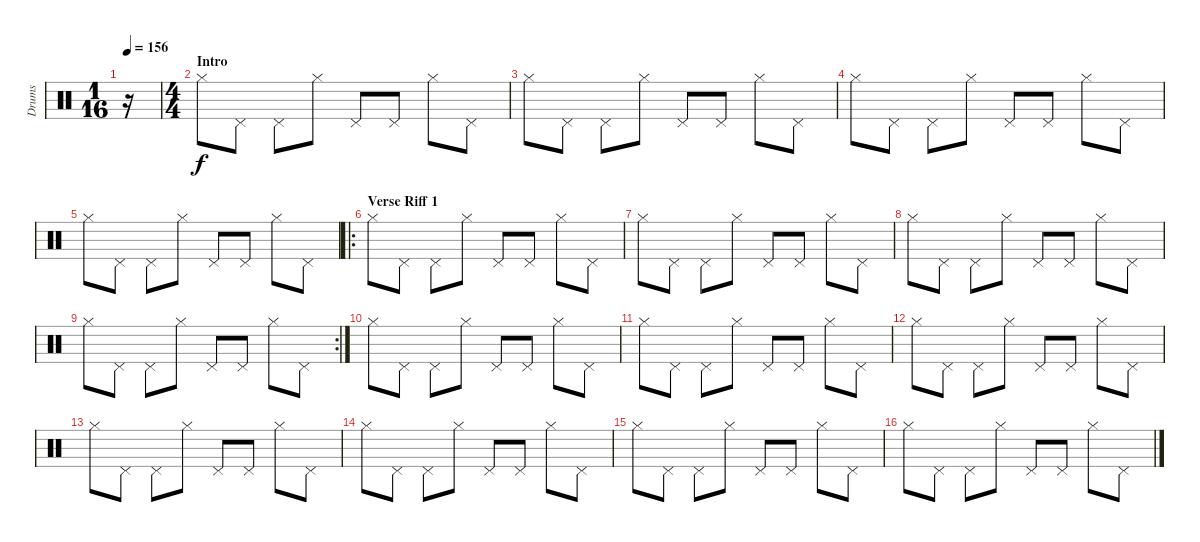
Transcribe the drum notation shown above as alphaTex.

\track ("Drums" "Drums") {instrument percussion}
\staff {score}
\articulation defaults
\ts (1 16)
\tempo 156
\clef neutral
\ks c
r.16{dy f} |
\ts (4 4)
\section ("" "Intro")
"Hi-Hat (closed)".8{volume 11} "Pedal Hi-Hat (hit)".8 "Pedal Hi-Hat (hit)".8 "Hi-Hat (closed)".8 "Pedal Hi-Hat (hit)".8 "Pedal Hi-Hat (hit)".8 "Hi-Hat (closed)".8 "Pedal Hi-Hat (hit)".8 |
"Hi-Hat (closed)".8 "Pedal Hi-Hat (hit)".8 "Pedal Hi-Hat (hit)".8 "Hi-Hat (closed)".8 "Pedal Hi-Hat (hit)".8 "Pedal Hi-Hat (hit)".8 "Hi-Hat (closed)".8 "Pedal Hi-Hat (hit)".8 |
"Hi-Hat (closed)".8 "Pedal Hi-Hat (hit)".8 "Pedal Hi-Hat (hit)".8 "Hi-Hat (closed)".8 "Pedal Hi-Hat (hit)".8 "Pedal Hi-Hat (hit)".8 "Hi-Hat (closed)".8 "Pedal Hi-Hat (hit)".8 |
"Hi-Hat (closed)".8 "Pedal Hi-Hat (hit)".8 "Pedal Hi-Hat (hit)".8 "Hi-Hat (closed)".8 "Pedal Hi-Hat (hit)".8 "Pedal Hi-Hat (hit)".8 "Hi-Hat (closed)".8 "Pedal Hi-Hat (hit)".8 |
\ro
\section ("" "Verse Riff 1")
"Hi-Hat (closed)".8 "Pedal Hi-Hat (hit)".8 "Pedal Hi-Hat (hit)".8 "Hi-Hat (closed)".8 "Pedal Hi-Hat (hit)".8 "Pedal Hi-Hat (hit)".8 "Hi-Hat (closed)".8 "Pedal Hi-Hat (hit)".8 |
"Hi-Hat (closed)".8 "Pedal Hi-Hat (hit)".8 "Pedal Hi-Hat (hit)".8 "Hi-Hat (closed)".8 "Pedal Hi-Hat (hit)".8 "Pedal Hi-Hat (hit)".8 "Hi-Hat (closed)".8 "Pedal Hi-Hat (hit)".8 |
"Hi-Hat (closed)".8 "Pedal Hi-Hat (hit)".8 "Pedal Hi-Hat (hit)".8 "Hi-Hat (closed)".8 "Pedal Hi-Hat (hit)".8 "Pedal Hi-Hat (hit)".8 "Hi-Hat (closed)".8 "Pedal Hi-Hat (hit)".8 |
\rc 2 "Hi-Hat (closed)".8 "Pedal Hi-Hat (hit)".8 "Pedal Hi-Hat (hit)".8 "Hi-Hat (closed)".8 "Pedal Hi-Hat (hit)".8 "Pedal Hi-Hat (hit)".8 "Hi-Hat (closed)".8 "Pedal Hi-Hat (hit)".8
|
"Hi-Hat (closed)".8 "Pedal Hi-Hat (hit)".8 "Pedal Hi-Hat (hit)".8 "Hi-Hat (closed)".8 "Pedal Hi-Hat (hit)".8 "Pedal Hi-Hat (hit)".8 "Hi-Hat (closed)".8 "Pedal Hi-Hat (hit)".8 |
"Hi-Hat (closed)".8 "Pedal Hi-Hat (hit)".8 "Pedal Hi-Hat (hit)".8 "Hi-Hat (closed)".8 "Pedal Hi-Hat (hit)".8 "Pedal Hi-Hat (hit)".8 "Hi-Hat (closed)".8 "Pedal Hi-Hat (hit)".8 |
"Hi-Hat (closed)".8 "Pedal Hi-Hat (hit)".8 "Pedal Hi-Hat (hit)".8 "Hi-Hat (closed)".8 "Pedal Hi-Hat (hit)".8 "Pedal Hi-Hat (hit)".8 "Hi-Hat (closed)".8 "Pedal Hi-Hat (hit)".8 |
"Hi-Hat (closed)".8 "Pedal Hi-Hat (hit)".8 "Pedal Hi-Hat (hit)".8 "Hi-Hat (closed)".8 "Pedal Hi-Hat (hit)".8 "Pedal Hi-Hat (hit)".8 "Hi-Hat (closed)".8 "Pedal Hi-Hat (hit)".8 |
"Hi-Hat (closed)".8 "Pedal Hi-Hat (hit)".8 "Pedal Hi-Hat (hit)".8 "Hi-Hat (closed)".8 "Pedal Hi-Hat (hit)".8 "Pedal Hi-Hat (hit)".8 "Hi-Hat (closed)".8 "Pedal Hi-Hat (hit)".8 |
"Hi-Hat (closed)".8 "Pedal Hi-Hat (hit)".8 "Pedal Hi-Hat (hit)".8 "Hi-Hat (closed)".8 "Pedal Hi-Hat (hit)".8 "Pedal Hi-Hat (hit)".8 "Hi-Hat (closed)".8 "Pedal Hi-Hat (hit)".8 |
"Hi-Hat (closed)".8 "Pedal Hi-Hat (hit)".8 "Pedal Hi-Hat (hit)".8 "Hi-Hat (closed)".8 "Pedal Hi-Hat (hit)".8 "Pedal Hi-Hat (hit)".8 "Hi-Hat (closed)".8 "Pedal Hi-Hat (hit)".8
